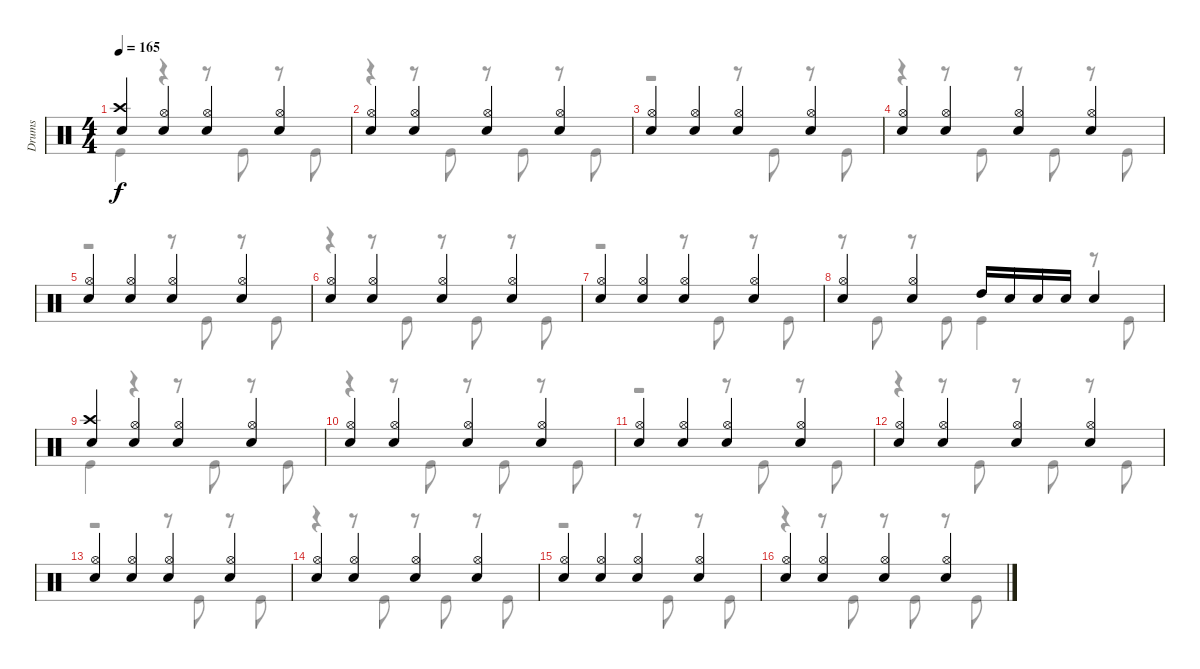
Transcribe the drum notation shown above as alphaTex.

\track ("Drums" "Drums") {instrument percussion}
\staff {score}
\articulation defaults
\voice
\ts (4 4)
\tempo 165
\clef neutral
\ks c
("Crash high (hit)" "Snare (hit) 2").4{dy f beam Up} ("Hi-Hat (open)" "Snare (hit) 2").4{beam Up} ("Hi-Hat (open)" "Snare (hit) 2").4{beam Up} ("Hi-Hat (open)" "Snare (hit) 2").4{beam Up} |
("Hi-Hat (open)" "Snare (hit) 2").4{beam Up} ("Hi-Hat (open)" "Snare (hit) 2").4{beam Up} ("Hi-Hat (open)" "Snare (hit) 2").4{beam Up} ("Hi-Hat (open)" "Snare (hit) 2").4{beam Up} |
("Hi-Hat (open)" "Snare (hit) 2").4{beam Up} ("Hi-Hat (open)" "Snare (hit) 2").4{beam Up} ("Hi-Hat (open)" "Snare (hit) 2").4{beam Up} ("Hi-Hat (open)" "Snare (hit) 2").4{beam Up} |
("Hi-Hat (open)" "Snare (hit) 2").4{beam Up} ("Hi-Hat (open)" "Snare (hit) 2").4{beam Up} ("Hi-Hat (open)" "Snare (hit) 2").4{beam Up} ("Hi-Hat (open)" "Snare (hit) 2").4{beam Up} |
("Hi-Hat (open)" "Snare (hit) 2").4{beam Up} ("Hi-Hat (open)" "Snare (hit) 2").4{beam Up} ("Hi-Hat (open)" "Snare (hit) 2").4{beam Up} ("Hi-Hat (open)" "Snare (hit) 2").4{beam Up} |
("Hi-Hat (open)" "Snare (hit) 2").4{beam Up} ("Hi-Hat (open)" "Snare (hit) 2").4{beam Up} ("Hi-Hat (open)" "Snare (hit) 2").4{beam Up} ("Hi-Hat (open)" "Snare (hit) 2").4{beam Up} |
("Hi-Hat (open)" "Snare (hit) 2").4{beam Up} ("Hi-Hat (open)" "Snare (hit) 2").4{beam Up} ("Hi-Hat (open)" "Snare (hit) 2").4{beam Up} ("Hi-Hat (open)" "Snare (hit) 2").4{beam Up} |
("Hi-Hat (open)" "Snare (hit) 2").4{beam Up} ("Hi-Hat (open)" "Snare (hit) 2").4{beam Up} "High Tom (hit)".16{beam Up} "Snare (hit) 2".16{beam Up} "Snare (hit) 2".16{beam Up} "Snare (hit) 2".16{beam Up} "Snare (hit) 2".4{beam Up} |
("Crash high (hit)" "Snare (hit) 2").4{beam Up} ("Hi-Hat (open)" "Snare (hit) 2").4{beam Up} ("Hi-Hat (open)" "Snare (hit) 2").4{beam Up} ("Hi-Hat (open)" "Snare (hit) 2").4{beam Up} |
("Hi-Hat (open)" "Snare (hit) 2").4{beam Up} ("Hi-Hat (open)" "Snare (hit) 2").4{beam Up} ("Hi-Hat (open)" "Snare (hit) 2").4{beam Up} ("Hi-Hat (open)" "Snare (hit) 2").4{beam Up} |
("Hi-Hat (open)" "Snare (hit) 2").4{beam Up} ("Hi-Hat (open)" "Snare (hit) 2").4{beam Up} ("Hi-Hat (open)" "Snare (hit) 2").4{beam Up} ("Hi-Hat (open)" "Snare (hit) 2").4{beam Up} |
("Hi-Hat (open)" "Snare (hit) 2").4{beam Up} ("Hi-Hat (open)" "Snare (hit) 2").4{beam Up} ("Hi-Hat (open)" "Snare (hit) 2").4{beam Up} ("Hi-Hat (open)" "Snare (hit) 2").4{beam Up} |
("Hi-Hat (open)" "Snare (hit) 2").4{beam Up} ("Hi-Hat (open)" "Snare (hit) 2").4{beam Up} ("Hi-Hat (open)" "Snare (hit) 2").4{beam Up} ("Hi-Hat (open)" "Snare (hit) 2").4{beam Up} |
("Hi-Hat (open)" "Snare (hit) 2").4{beam Up} ("Hi-Hat (open)" "Snare (hit) 2").4{beam Up} ("Hi-Hat (open)" "Snare (hit) 2").4{beam Up} ("Hi-Hat (open)" "Snare (hit) 2").4{beam Up} |
("Hi-Hat (open)" "Snare (hit) 2").4{beam Up} ("Hi-Hat (open)" "Snare (hit) 2").4{beam Up} ("Hi-Hat (open)" "Snare (hit) 2").4{beam Up} ("Hi-Hat (open)" "Snare (hit) 2").4{beam Up} |
("Hi-Hat (open)" "Snare (hit) 2").4{beam Up} ("Hi-Hat (open)" "Snare (hit) 2").4{beam Up} ("Hi-Hat (open)" "Snare (hit) 2").4{beam Up} ("Hi-Hat (open)" "Snare (hit) 2").4{beam Up}
\voice
\clef neutral
\ottava regular
\simile none
\ks c "Kick (hit)".4{dy f}
r.4 r.8 "Kick (hit)".8 r.8 "Kick (hit)".8 |
r.4 r.8 "Kick (hit)".8 r.8 "Kick (hit)".8 r.8 "Kick (hit)".8 |
r.2 r.8 "Kick (hit)".8 r.8 "Kick (hit)".8 |
r.4 r.8 "Kick (hit)".8 r.8 "Kick (hit)".8 r.8 "Kick (hit)".8 |
r.2 r.8 "Kick (hit)".8 r.8 "Kick (hit)".8 |
r.4 r.8 "Kick (hit)".8 r.8 "Kick (hit)".8 r.8 "Kick (hit)".8 |
r.2 r.8 "Kick (hit)".8 r.8 "Kick (hit)".8 |
r.8 "Kick (hit)".8 r.8 "Kick (hit)".8 "Kick (hit)".4 r.8 "Kick (hit)".8 |
"Kick (hit)".4 r.4 r.8 "Kick (hit)".8 r.8 "Kick (hit)".8 |
r.4 r.8 "Kick (hit)".8 r.8 "Kick (hit)".8 r.8 "Kick (hit)".8 |
r.2 r.8 "Kick (hit)".8 r.8 "Kick (hit)".8 |
r.4 r.8 "Kick (hit)".8 r.8 "Kick (hit)".8 r.8 "Kick (hit)".8 |
r.2 r.8 "Kick (hit)".8 r.8 "Kick (hit)".8 |
r.4 r.8 "Kick (hit)".8 r.8 "Kick (hit)".8 r.8 "Kick (hit)".8 |
r.2 r.8 "Kick (hit)".8 r.8 "Kick (hit)".8 |
r.4 r.8 "Kick (hit)".8 r.8 "Kick (hit)".8 r.8 "Kick (hit)".8
